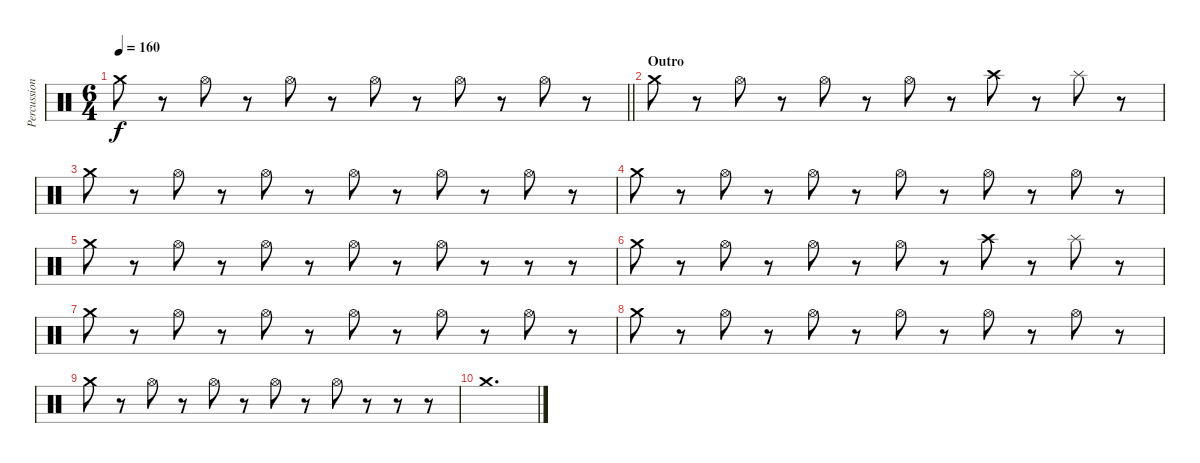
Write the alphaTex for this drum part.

\track ("Percussion" "Percussion") {instrument percussion}
\staff {score}
\articulation defaults
\ts (6 4)
\tempo 160
\clef neutral
\barLineRight lightlight
\ks c "Crash medium (hit)".8{dy f}
r.8 "Hi-Hat (open)".8 r.8 "Hi-Hat (open)".8 r.8 "Hi-Hat (open)".8 r.8 "Hi-Hat (open)".8 r.8 "Hi-Hat (open)".8 r.8 |
\section ("" "Outro")
"Crash medium (hit)".8 r.8 "Hi-Hat (open)".8 r.8 "Hi-Hat (open)".8 r.8 "Hi-Hat (open)".8 r.8 "Crash high (hit)".8 r.8 "Splash (hit)".8 r.8 |
"Crash medium (hit)".8 r.8 "Hi-Hat (open)".8 r.8 "Hi-Hat (open)".8 r.8 "Hi-Hat (open)".8 r.8 "Hi-Hat (open)".8 r.8 "Hi-Hat (open)".8 r.8 |
"Crash medium (hit)".8 r.8 "Hi-Hat (open)".8 r.8 "Hi-Hat (open)".8 r.8 "Hi-Hat (open)".8 r.8 "Hi-Hat (open)".8 r.8 "Hi-Hat (open)".8 r.8 |
"Crash medium (hit)".8 r.8 "Hi-Hat (open)".8 r.8 "Hi-Hat (open)".8 r.8 "Hi-Hat (open)".8 r.8 "Hi-Hat (open)".8 r.8 r.8 r.8 |
"Crash medium (hit)".8 r.8 "Hi-Hat (open)".8 r.8 "Hi-Hat (open)".8 r.8 "Hi-Hat (open)".8 r.8 "Crash high (hit)".8 r.8 "Splash (hit)".8 r.8 |
"Crash medium (hit)".8 r.8 "Hi-Hat (open)".8 r.8 "Hi-Hat (open)".8 r.8 "Hi-Hat (open)".8 r.8 "Hi-Hat (open)".8 r.8 "Hi-Hat (open)".8 r.8 |
"Crash medium (hit)".8 r.8 "Hi-Hat (open)".8 r.8 "Hi-Hat (open)".8 r.8 "Hi-Hat (open)".8 r.8 "Hi-Hat (open)".8 r.8 "Hi-Hat (open)".8 r.8 |
"Crash medium (hit)".8 r.8 "Hi-Hat (open)".8 r.8 "Hi-Hat (open)".8 r.8 "Hi-Hat (open)".8 r.8 "Hi-Hat (open)".8 r.8 r.8 r.8 |
"Crash medium (hit)".1{d}
